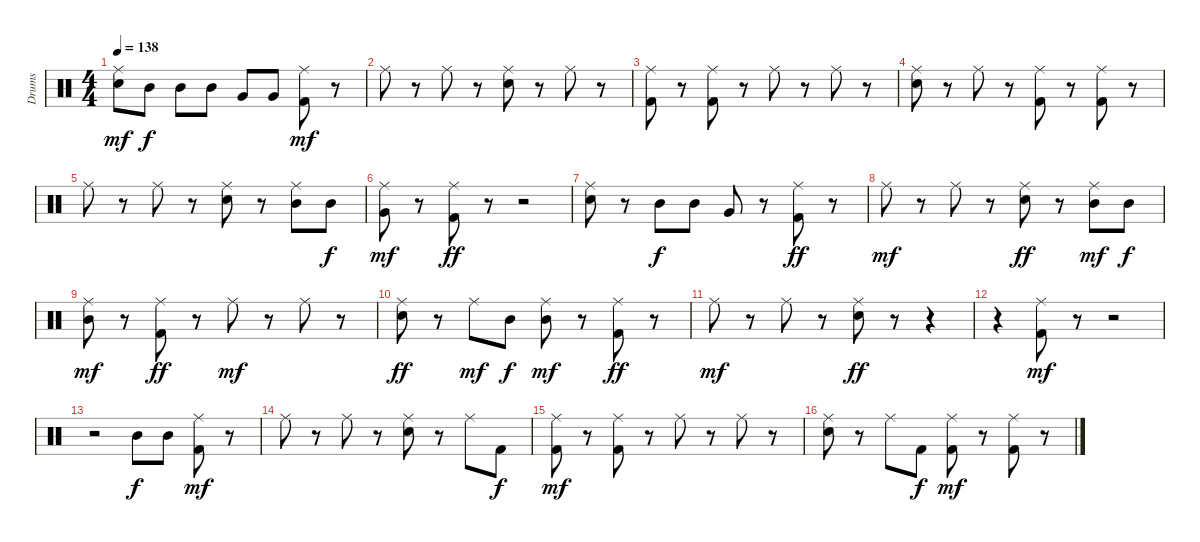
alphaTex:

\track ("Drums" "Drums") {instrument percussion}
\staff {score}
\articulation defaults
\ts (4 4)
\tempo 138
\clef neutral
\ks c
("Ride (middle)" "Snare (hit) 2").8{dy mf} "Mid Tom (hit)".8{dy f} "Mid Tom (hit)".8 "Mid Tom (hit)".8 "Very Low Tom (hit)".8 "Very Low Tom (hit)".8 ("Ride (middle)" "Kick (hit) 2").8{dy mf} r.8 |
"Ride (middle)".8 r.8 "Ride (middle)".8 r.8 ("Ride (middle)" "Snare (hit) 2").8 r.8 "Ride (middle)".8 r.8 |
("Ride (middle)" "Kick (hit) 2").8 r.8 ("Ride (middle)" "Kick (hit) 2").8 r.8 "Ride (middle)".8 r.8 "Ride (middle)".8 r.8 |
("Ride (middle)" "Snare (hit) 2").8 r.8 "Ride (middle)".8 r.8 ("Ride (middle)" "Kick (hit) 2").8 r.8 ("Ride (middle)" "Kick (hit) 2").8 r.8 |
"Ride (middle)".8 r.8 "Ride (middle)".8 r.8 ("Ride (middle)" "Snare (hit) 2").8 r.8 ("Ride (middle)" "Mid Tom (hit)").8 "Mid Tom (hit)".8{dy f} |
("Ride (middle)" "Very Low Tom (hit)").8{dy mf} r.8 ("Ride (middle)" "Kick (hit) 2").8{dy ff} r.8 r.2 |
("Ride (middle)" "Snare (hit) 2").8 r.8 "Mid Tom (hit)".8{dy f} "Mid Tom (hit)".8 "Very Low Tom (hit)".8 r.8 ("Ride (middle)" "Kick (hit) 2").8{dy ff} r.8 |
"Ride (middle)".8{dy mf} r.8 "Ride (middle)".8 r.8 ("Ride (middle)" "Snare (hit) 2").8{dy ff} r.8 ("Ride (middle)" "Mid Tom (hit)").8{dy mf} "Mid Tom (hit)".8{dy f} |
("Ride (middle)" "Mid Tom (hit)").8{dy mf} r.8 ("Ride (middle)" "Kick (hit) 2").8{dy ff} r.8 "Ride (middle)".8{dy mf} r.8 "Ride (middle)".8 r.8 |
("Ride (middle)" "Snare (hit) 2").8{dy ff} r.8 "Ride (middle)".8{dy mf} "Mid Tom (hit)".8{dy f} ("Ride (middle)" "Mid Tom (hit)").8{dy mf} r.8 ("Ride (middle)" "Kick (hit) 2").8{dy ff} r.8 |
"Ride (middle)".8{dy mf} r.8 "Ride (middle)".8 r.8 ("Ride (middle)" "Snare (hit) 2").8{dy ff} r.8 r.4 |
r.4 ("Ride (middle)" "Kick (hit) 2").8{dy mf} r.8 r.2 |
r.2 "Mid Tom (hit)".8{dy f} "Mid Tom (hit)".8 ("Ride (middle)" "Kick (hit) 2").8{dy mf} r.8 |
"Ride (middle)".8 r.8 "Ride (middle)".8 r.8 ("Ride (middle)" "Snare (hit) 2").8 r.8 "Ride (middle)".8 "Kick (hit) 2".8{dy f} |
("Ride (middle)" "Kick (hit) 2").8{dy mf} r.8 ("Ride (middle)" "Kick (hit) 2").8 r.8 "Ride (middle)".8 r.8 "Ride (middle)".8 r.8 |
("Ride (middle)" "Snare (hit) 2").8 r.8 "Ride (middle)".8 "Kick (hit) 2".8{dy f} ("Ride (middle)" "Kick (hit) 2").8{dy mf} r.8 ("Ride (middle)" "Kick (hit) 2").8 r.8
